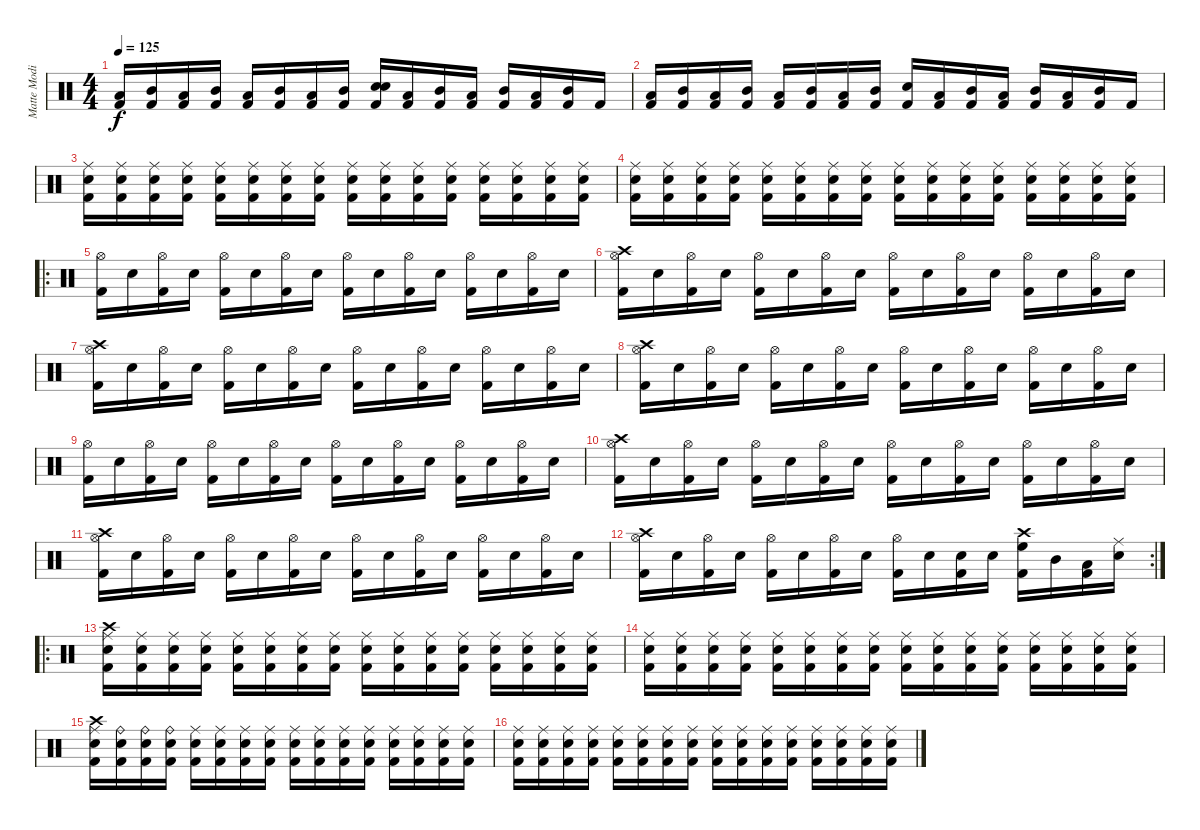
\track ("Matte Modin" "Matte Modi") {instrument percussion}
\staff {score}
\articulation defaults
\ts (4 4)
\tempo 125
\clef neutral
\ks c
("Low Tom (hit)" "Kick (hit) 2").16{dy f} ("Mid Tom (hit)" "Kick (hit) 2").16 ("Low Tom (hit)" "Kick (hit) 2").16 ("Mid Tom (hit)" "Kick (hit) 2").16 ("Low Tom (hit)" "Kick (hit) 2").16 ("Mid Tom (hit)" "Kick (hit) 2").16 ("Low Tom (hit)" "Kick (hit) 2").16 ("Mid Tom (hit)" "Kick (hit) 2").16 ("Electric Snare (hit)" "Electric Snare (hit)" "Kick (hit) 2").16 ("Low Tom (hit)" "Kick (hit) 2").16 ("Mid Tom (hit)" "Kick (hit) 2").16 ("Low Tom (hit)" "Kick (hit) 2").16 ("Mid Tom (hit)" "Kick (hit) 2").16 ("Low Tom (hit)" "Kick (hit) 2").16 ("Mid Tom (hit)" "Kick (hit) 2").16 "Kick (hit) 2".16 |
("Low Tom (hit)" "Kick (hit) 2").16 ("Mid Tom (hit)" "Kick (hit) 2").16 ("Low Tom (hit)" "Kick (hit) 2").16 ("Mid Tom (hit)" "Kick (hit) 2").16 ("Low Tom (hit)" "Kick (hit) 2").16 ("Mid Tom (hit)" "Kick (hit) 2").16 ("Low Tom (hit)" "Kick (hit) 2").16 ("Mid Tom (hit)" "Kick (hit) 2").16 ("Electric Snare (hit)" "Kick (hit) 2").16 ("Low Tom (hit)" "Kick (hit) 2").16 ("Mid Tom (hit)" "Kick (hit) 2").16 ("Low Tom (hit)" "Kick (hit) 2").16 ("Mid Tom (hit)" "Kick (hit) 2").16 ("Low Tom (hit)" "Kick (hit) 2").16 ("Mid Tom (hit)" "Kick (hit) 2").16 "Kick (hit) 2".16 |
("Kick (hit) 2" "Ride (middle)" "Electric Snare (hit)").16 ("Kick (hit) 2" "Ride (middle)" "Electric Snare (hit)").16 ("Kick (hit) 2" "Ride (middle)" "Electric Snare (hit)").16 ("Kick (hit) 2" "Ride (middle)" "Electric Snare (hit)").16 ("Kick (hit) 2" "Ride (middle)" "Electric Snare (hit)").16 ("Kick (hit) 2" "Ride (middle)" "Electric Snare (hit)").16 ("Kick (hit) 2" "Ride (middle)" "Electric Snare (hit)").16 ("Kick (hit) 2" "Ride (middle)" "Electric Snare (hit)").16 ("Kick (hit) 2" "Ride (middle)" "Electric Snare (hit)").16 ("Kick (hit) 2" "Ride (middle)" "Electric Snare (hit)").16 ("Kick (hit) 2" "Ride (middle)" "Electric Snare (hit)").16 ("Kick (hit) 2" "Ride (middle)" "Electric Snare (hit)").16 ("Kick (hit) 2" "Ride (middle)" "Electric Snare (hit)").16 ("Kick (hit) 2" "Ride (middle)" "Electric Snare (hit)").16 ("Kick (hit) 2" "Ride (middle)" "Electric Snare (hit)").16 ("Kick (hit) 2" "Ride (middle)" "Electric Snare (hit)").16 |
("Kick (hit) 2" "Ride (middle)" "Electric Snare (hit)").16 ("Kick (hit) 2" "Ride (middle)" "Electric Snare (hit)").16 ("Kick (hit) 2" "Ride (middle)" "Electric Snare (hit)").16 ("Kick (hit) 2" "Ride (middle)" "Electric Snare (hit)").16 ("Kick (hit) 2" "Ride (middle)" "Electric Snare (hit)").16 ("Kick (hit) 2" "Ride (middle)" "Electric Snare (hit)").16 ("Kick (hit) 2" "Ride (middle)" "Electric Snare (hit)").16 ("Kick (hit) 2" "Ride (middle)" "Electric Snare (hit)").16 ("Kick (hit) 2" "Ride (middle)" "Electric Snare (hit)").16 ("Kick (hit) 2" "Ride (middle)" "Electric Snare (hit)").16 ("Kick (hit) 2" "Ride (middle)" "Electric Snare (hit)").16 ("Kick (hit) 2" "Ride (middle)" "Electric Snare (hit)").16 ("Kick (hit) 2" "Ride (middle)" "Electric Snare (hit)").16 ("Kick (hit) 2" "Ride (middle)" "Electric Snare (hit)").16 ("Kick (hit) 2" "Ride (middle)" "Electric Snare (hit)").16 ("Kick (hit) 2" "Ride (middle)" "Electric Snare (hit)").16 |
\ro
("Hi-Hat (open)" "Kick (hit) 2").16 "Electric Snare (hit)".16 ("Hi-Hat (open)" "Kick (hit) 2").16 "Electric Snare (hit)".16 ("Hi-Hat (open)" "Kick (hit) 2").16 "Electric Snare (hit)".16 ("Hi-Hat (open)" "Kick (hit) 2").16 "Electric Snare (hit)".16 ("Hi-Hat (open)" "Kick (hit) 2").16 "Electric Snare (hit)".16 ("Hi-Hat (open)" "Kick (hit) 2").16 "Electric Snare (hit)".16 ("Hi-Hat (open)" "Kick (hit) 2").16 "Electric Snare (hit)".16 ("Hi-Hat (open)" "Kick (hit) 2").16 "Electric Snare (hit)".16 |
("Crash high (hit)" "Hi-Hat (open)" "Kick (hit) 2").16 "Electric Snare (hit)".16 ("Hi-Hat (open)" "Kick (hit) 2").16 "Electric Snare (hit)".16 ("Hi-Hat (open)" "Kick (hit) 2").16 "Electric Snare (hit)".16 ("Hi-Hat (open)" "Kick (hit) 2").16 "Electric Snare (hit)".16 ("Hi-Hat (open)" "Kick (hit) 2").16 "Electric Snare (hit)".16 ("Hi-Hat (open)" "Kick (hit) 2").16 "Electric Snare (hit)".16 ("Hi-Hat (open)" "Kick (hit) 2").16 "Electric Snare (hit)".16 ("Hi-Hat (open)" "Kick (hit) 2").16 "Electric Snare (hit)".16 |
("Crash high (hit)" "Hi-Hat (open)" "Kick (hit) 2").16 "Electric Snare (hit)".16 ("Hi-Hat (open)" "Kick (hit) 2").16 "Electric Snare (hit)".16 ("Hi-Hat (open)" "Kick (hit) 2").16 "Electric Snare (hit)".16 ("Hi-Hat (open)" "Kick (hit) 2").16 "Electric Snare (hit)".16 ("Hi-Hat (open)" "Kick (hit) 2").16 "Electric Snare (hit)".16 ("Hi-Hat (open)" "Kick (hit) 2").16 "Electric Snare (hit)".16 ("Hi-Hat (open)" "Kick (hit) 2").16 "Electric Snare (hit)".16 ("Hi-Hat (open)" "Kick (hit) 2").16 "Electric Snare (hit)".16 |
("Crash high (hit)" "Hi-Hat (open)" "Kick (hit) 2").16 "Electric Snare (hit)".16 ("Hi-Hat (open)" "Kick (hit) 2").16 "Electric Snare (hit)".16 ("Hi-Hat (open)" "Kick (hit) 2").16 "Electric Snare (hit)".16 ("Hi-Hat (open)" "Kick (hit) 2").16 "Electric Snare (hit)".16 ("Hi-Hat (open)" "Kick (hit) 2").16 "Electric Snare (hit)".16 ("Hi-Hat (open)" "Kick (hit) 2").16 "Electric Snare (hit)".16 ("Hi-Hat (open)" "Kick (hit) 2").16 "Electric Snare (hit)".16 ("Hi-Hat (open)" "Kick (hit) 2").16 "Electric Snare (hit)".16 |
("Hi-Hat (open)" "Kick (hit) 2").16 "Electric Snare (hit)".16 ("Hi-Hat (open)" "Kick (hit) 2").16 "Electric Snare (hit)".16 ("Hi-Hat (open)" "Kick (hit) 2").16 "Electric Snare (hit)".16 ("Hi-Hat (open)" "Kick (hit) 2").16 "Electric Snare (hit)".16 ("Hi-Hat (open)" "Kick (hit) 2").16 "Electric Snare (hit)".16 ("Hi-Hat (open)" "Kick (hit) 2").16 "Electric Snare (hit)".16 ("Hi-Hat (open)" "Kick (hit) 2").16 "Electric Snare (hit)".16 ("Hi-Hat (open)" "Kick (hit) 2").16 "Electric Snare (hit)".16 |
("Crash high (hit)" "Hi-Hat (open)" "Kick (hit) 2").16 "Electric Snare (hit)".16 ("Hi-Hat (open)" "Kick (hit) 2").16 "Electric Snare (hit)".16 ("Hi-Hat (open)" "Kick (hit) 2").16 "Electric Snare (hit)".16 ("Hi-Hat (open)" "Kick (hit) 2").16 "Electric Snare (hit)".16 ("Hi-Hat (open)" "Kick (hit) 2").16 "Electric Snare (hit)".16 ("Hi-Hat (open)" "Kick (hit) 2").16 "Electric Snare (hit)".16 ("Hi-Hat (open)" "Kick (hit) 2").16 "Electric Snare (hit)".16 ("Hi-Hat (open)" "Kick (hit) 2").16 "Electric Snare (hit)".16 |
("Crash high (hit)" "Hi-Hat (open)" "Kick (hit) 2").16 "Electric Snare (hit)".16 ("Hi-Hat (open)" "Kick (hit) 2").16 "Electric Snare (hit)".16 ("Hi-Hat (open)" "Kick (hit) 2").16 "Electric Snare (hit)".16 ("Hi-Hat (open)" "Kick (hit) 2").16 "Electric Snare (hit)".16 ("Hi-Hat (open)" "Kick (hit) 2").16 "Electric Snare (hit)".16 ("Hi-Hat (open)" "Kick (hit) 2").16 "Electric Snare (hit)".16 ("Hi-Hat (open)" "Kick (hit) 2").16 "Electric Snare (hit)".16 ("Hi-Hat (open)" "Kick (hit) 2").16 "Electric Snare (hit)".16 |
\rc 2
("Crash high (hit)" "Hi-Hat (open)" "Kick (hit) 2").16 "Electric Snare (hit)".16 ("Hi-Hat (open)" "Kick (hit) 2").16 "Electric Snare (hit)".16 ("Hi-Hat (open)" "Kick (hit) 2").16 "Electric Snare (hit)".16 ("Hi-Hat (open)" "Kick (hit) 2").16 "Electric Snare (hit)".16 ("Hi-Hat (open)" "Kick (hit) 2").16 "Electric Snare (hit)".16 ("Electric Snare (hit)" "Kick (hit) 2").16 "Electric Snare (hit)".16 ("Crash high (hit)" "High Floor Tom (hit)" "Kick (hit) 2").16 "Mid Tom (hit)".16 ("Low Tom (hit)" "Kick (hit) 2").16 ("Ride (middle)" "Electric Snare (hit)").16 |
\ro
("Crash high (hit)" "Kick (hit) 2" "Ride (middle)" "Electric Snare (hit)").16 ("Kick (hit) 2" "Ride (middle)" "Electric Snare (hit)").16 ("Kick (hit) 2" "Ride (middle)" "Electric Snare (hit)").16 ("Kick (hit) 2" "Ride (middle)" "Electric Snare (hit)").16 ("Kick (hit) 2" "Ride (middle)" "Electric Snare (hit)").16 ("Kick (hit) 2" "Ride (middle)" "Electric Snare (hit)").16 ("Kick (hit) 2" "Ride (middle)" "Electric Snare (hit)").16 ("Kick (hit) 2" "Ride (middle)" "Electric Snare (hit)").16 ("Kick (hit) 2" "Ride (middle)" "Electric Snare (hit)").16 ("Kick (hit) 2" "Ride (middle)" "Electric Snare (hit)").16 ("Kick (hit) 2" "Ride (middle)" "Electric Snare (hit)").16 ("Kick (hit) 2" "Ride (middle)" "Electric Snare (hit)").16 ("Kick (hit) 2" "Ride (middle)" "Electric Snare (hit)").16 ("Kick (hit) 2" "Ride (middle)" "Electric Snare (hit)").16 ("Kick (hit) 2" "Ride (middle)" "Electric Snare (hit)").16 ("Kick (hit) 2" "Ride (middle)" "Electric Snare (hit)").16 |
("Kick (hit) 2" "Ride (middle)" "Electric Snare (hit)").16 ("Kick (hit) 2" "Ride (middle)" "Electric Snare (hit)").16 ("Kick (hit) 2" "Ride (middle)" "Electric Snare (hit)").16 ("Kick (hit) 2" "Ride (middle)" "Electric Snare (hit)").16 ("Kick (hit) 2" "Ride (middle)" "Electric Snare (hit)").16 ("Kick (hit) 2" "Ride (middle)" "Electric Snare (hit)").16 ("Kick (hit) 2" "Ride (middle)" "Electric Snare (hit)").16 ("Kick (hit) 2" "Ride (middle)" "Electric Snare (hit)").16 ("Kick (hit) 2" "Ride (middle)" "Electric Snare (hit)").16 ("Kick (hit) 2" "Ride (middle)" "Electric Snare (hit)").16 ("Kick (hit) 2" "Ride (middle)" "Electric Snare (hit)").16 ("Kick (hit) 2" "Ride (middle)" "Electric Snare (hit)").16 ("Kick (hit) 2" "Ride (middle)" "Electric Snare (hit)").16 ("Kick (hit) 2" "Ride (middle)" "Electric Snare (hit)").16 ("Kick (hit) 2" "Ride (middle)" "Electric Snare (hit)").16 ("Kick (hit) 2" "Ride (middle)" "Electric Snare (hit)").16 |
("Crash high (hit)" "Kick (hit) 2" "Ride (middle)" "Electric Snare (hit)").16 ("Kick (hit) 2" "Ride (bell)" "Electric Snare (hit)").16 ("Kick (hit) 2" "Ride (bell)" "Electric Snare (hit)").16 ("Kick (hit) 2" "Ride (bell)" "Electric Snare (hit)").16 ("Kick (hit) 2" "Ride (middle)" "Electric Snare (hit)").16 ("Kick (hit) 2" "Ride (middle)" "Electric Snare (hit)").16 ("Kick (hit) 2" "Ride (middle)" "Electric Snare (hit)").16 ("Kick (hit) 2" "Ride (middle)" "Electric Snare (hit)").16 ("Kick (hit) 2" "Ride (middle)" "Electric Snare (hit)").16 ("Kick (hit) 2" "Ride (middle)" "Electric Snare (hit)").16 ("Kick (hit) 2" "Ride (middle)" "Electric Snare (hit)").16 ("Kick (hit) 2" "Ride (middle)" "Electric Snare (hit)").16 ("Kick (hit) 2" "Ride (middle)" "Electric Snare (hit)").16 ("Kick (hit) 2" "Ride (middle)" "Electric Snare (hit)").16 ("Kick (hit) 2" "Ride (middle)" "Electric Snare (hit)").16 ("Kick (hit) 2" "Ride (middle)" "Electric Snare (hit)").16 |
("Kick (hit) 2" "Ride (middle)" "Electric Snare (hit)").16 ("Kick (hit) 2" "Ride (middle)" "Electric Snare (hit)").16 ("Kick (hit) 2" "Ride (middle)" "Electric Snare (hit)").16 ("Kick (hit) 2" "Ride (middle)" "Electric Snare (hit)").16 ("Kick (hit) 2" "Ride (middle)" "Electric Snare (hit)").16 ("Kick (hit) 2" "Ride (middle)" "Electric Snare (hit)").16 ("Kick (hit) 2" "Ride (middle)" "Electric Snare (hit)").16 ("Kick (hit) 2" "Ride (middle)" "Electric Snare (hit)").16 ("Kick (hit) 2" "Ride (middle)" "Electric Snare (hit)").16 ("Kick (hit) 2" "Ride (middle)" "Electric Snare (hit)").16 ("Kick (hit) 2" "Ride (middle)" "Electric Snare (hit)").16 ("Kick (hit) 2" "Ride (middle)" "Electric Snare (hit)").16 ("Kick (hit) 2" "Ride (middle)" "Electric Snare (hit)").16 ("Kick (hit) 2" "Ride (middle)" "Electric Snare (hit)").16 ("Kick (hit) 2" "Ride (middle)" "Electric Snare (hit)").16 ("Kick (hit) 2" "Ride (middle)" "Electric Snare (hit)").16
